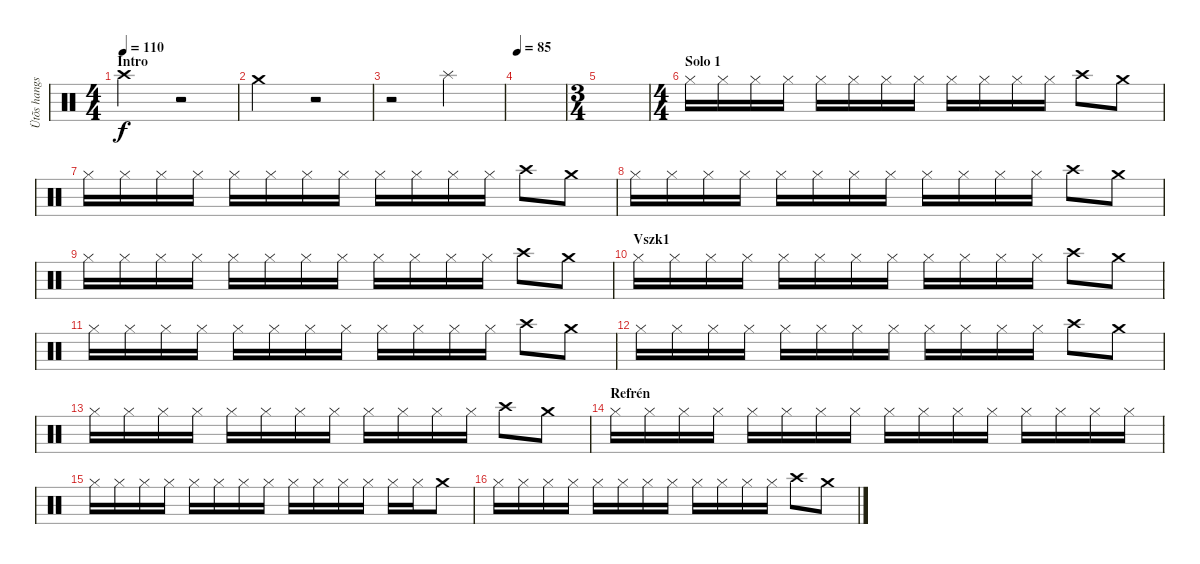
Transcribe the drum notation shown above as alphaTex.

\track ("Ütõs hangszer" "Ütõs hangs") {instrument percussion}
\staff {score}
\articulation defaults
\ts (4 4)
\section ("" "Intro")
\tempo 110
\clef neutral
\ks c "Crash high (hit)".2{dy f}
r.2 |
"Crash medium (hit)".2 r.2 |
r.2 "Splash (hit)".2 |
\tempo 85
|
\ts (3 4)
|
\ts (4 4)
\section ("" "Solo 1")
"Hi-Hat (closed)".16 "Hi-Hat (closed)".16 "Hi-Hat (closed)".16 "Hi-Hat (closed)".16 "Hi-Hat (closed)".16 "Hi-Hat (closed)".16 "Hi-Hat (closed)".16 "Hi-Hat (closed)".16 "Hi-Hat (closed)".16 "Hi-Hat (closed)".16 "Hi-Hat (closed)".16 "Hi-Hat (closed)".16 "Crash high (hit)".8 "Crash medium (hit)".8 |
"Hi-Hat (closed)".16 "Hi-Hat (closed)".16 "Hi-Hat (closed)".16 "Hi-Hat (closed)".16 "Hi-Hat (closed)".16 "Hi-Hat (closed)".16 "Hi-Hat (closed)".16 "Hi-Hat (closed)".16 "Hi-Hat (closed)".16 "Hi-Hat (closed)".16 "Hi-Hat (closed)".16 "Hi-Hat (closed)".16 "Crash high (hit)".8 "Crash medium (hit)".8 |
"Hi-Hat (closed)".16 "Hi-Hat (closed)".16 "Hi-Hat (closed)".16 "Hi-Hat (closed)".16 "Hi-Hat (closed)".16 "Hi-Hat (closed)".16 "Hi-Hat (closed)".16 "Hi-Hat (closed)".16 "Hi-Hat (closed)".16 "Hi-Hat (closed)".16 "Hi-Hat (closed)".16 "Hi-Hat (closed)".16 "Crash high (hit)".8 "Crash medium (hit)".8 |
"Hi-Hat (closed)".16 "Hi-Hat (closed)".16 "Hi-Hat (closed)".16 "Hi-Hat (closed)".16 "Hi-Hat (closed)".16 "Hi-Hat (closed)".16 "Hi-Hat (closed)".16 "Hi-Hat (closed)".16 "Hi-Hat (closed)".16 "Hi-Hat (closed)".16 "Hi-Hat (closed)".16 "Hi-Hat (closed)".16 "Crash high (hit)".8 "Crash medium (hit)".8 |
\section ("" "Vszk1")
"Hi-Hat (closed)".16 "Hi-Hat (closed)".16 "Hi-Hat (closed)".16 "Hi-Hat (closed)".16 "Hi-Hat (closed)".16 "Hi-Hat (closed)".16 "Hi-Hat (closed)".16 "Hi-Hat (closed)".16 "Hi-Hat (closed)".16 "Hi-Hat (closed)".16 "Hi-Hat (closed)".16 "Hi-Hat (closed)".16 "Crash high (hit)".8 "Crash medium (hit)".8 |
"Hi-Hat (closed)".16 "Hi-Hat (closed)".16 "Hi-Hat (closed)".16 "Hi-Hat (closed)".16 "Hi-Hat (closed)".16 "Hi-Hat (closed)".16 "Hi-Hat (closed)".16 "Hi-Hat (closed)".16 "Hi-Hat (closed)".16 "Hi-Hat (closed)".16 "Hi-Hat (closed)".16 "Hi-Hat (closed)".16 "Crash high (hit)".8 "Crash medium (hit)".8 |
"Hi-Hat (closed)".16 "Hi-Hat (closed)".16 "Hi-Hat (closed)".16 "Hi-Hat (closed)".16 "Hi-Hat (closed)".16 "Hi-Hat (closed)".16 "Hi-Hat (closed)".16 "Hi-Hat (closed)".16 "Hi-Hat (closed)".16 "Hi-Hat (closed)".16 "Hi-Hat (closed)".16 "Hi-Hat (closed)".16 "Crash high (hit)".8 "Crash medium (hit)".8 |
"Hi-Hat (closed)".16 "Hi-Hat (closed)".16 "Hi-Hat (closed)".16 "Hi-Hat (closed)".16 "Hi-Hat (closed)".16 "Hi-Hat (closed)".16 "Hi-Hat (closed)".16 "Hi-Hat (closed)".16 "Hi-Hat (closed)".16 "Hi-Hat (closed)".16 "Hi-Hat (closed)".16 "Hi-Hat (closed)".16 "Crash high (hit)".8 "Crash medium (hit)".8 |
\section ("" "Refrén")
"Hi-Hat (closed)".16 "Hi-Hat (closed)".16 "Hi-Hat (closed)".16 "Hi-Hat (closed)".16 "Hi-Hat (closed)".16 "Hi-Hat (closed)".16 "Hi-Hat (closed)".16 "Hi-Hat (closed)".16 "Hi-Hat (closed)".16 "Hi-Hat (closed)".16 "Hi-Hat (closed)".16 "Hi-Hat (closed)".16 "Hi-Hat (closed)".16 "Hi-Hat (closed)".16 "Hi-Hat (closed)".16 "Hi-Hat (closed)".16 |
"Hi-Hat (closed)".16 "Hi-Hat (closed)".16 "Hi-Hat (closed)".16 "Hi-Hat (closed)".16 "Hi-Hat (closed)".16 "Hi-Hat (closed)".16 "Hi-Hat (closed)".16 "Hi-Hat (closed)".16 "Hi-Hat (closed)".16 "Hi-Hat (closed)".16 "Hi-Hat (closed)".16 "Hi-Hat (closed)".16 "Hi-Hat (closed)".16 "Hi-Hat (closed)".16 "Crash medium (hit)".8 |
"Hi-Hat (closed)".16 "Hi-Hat (closed)".16 "Hi-Hat (closed)".16 "Hi-Hat (closed)".16 "Hi-Hat (closed)".16 "Hi-Hat (closed)".16 "Hi-Hat (closed)".16 "Hi-Hat (closed)".16 "Hi-Hat (closed)".16 "Hi-Hat (closed)".16 "Hi-Hat (closed)".16 "Hi-Hat (closed)".16 "Crash high (hit)".8 "Crash medium (hit)".8
